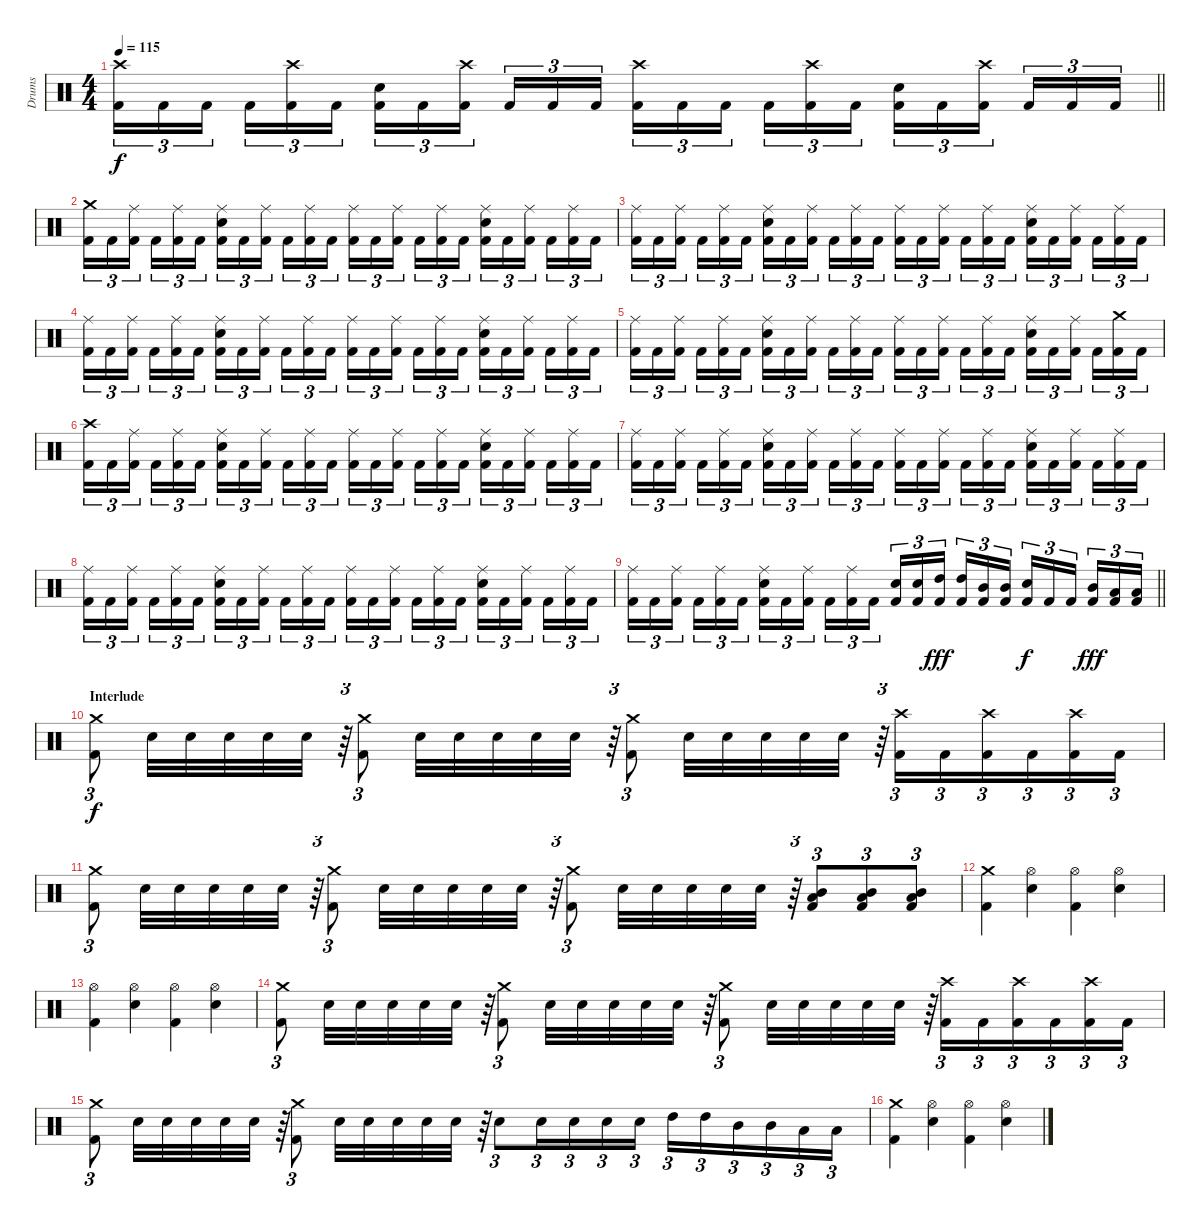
\track ("Drums" "Drums") {instrument percussion}
\staff {score}
\articulation defaults
\ts (4 4)
\tempo 115
\clef neutral
\barLineRight lightlight
\ks c
("Kick (hit) 2" "Crash high (hit)").16{tu (3 2) dy f} "Kick (hit) 2".16{tu (3 2)} "Kick (hit) 2".16{tu (3 2)} "Kick (hit) 2".16{tu (3 2)} ("Kick (hit) 2" "Crash high (hit)").16{tu (3 2)} "Kick (hit) 2".16{tu (3 2)} ("Kick (hit) 2" "Electric Snare (hit)").16{tu (3 2)} "Kick (hit) 2".16{tu (3 2)} ("Kick (hit) 2" "Crash high (hit)").16{tu (3 2)} "Kick (hit) 2".16{tu (3 2)} "Kick (hit) 2".16{tu (3 2)} "Kick (hit) 2".16{tu (3 2)} ("Kick (hit) 2" "Crash high (hit)").16{tu (3 2)} "Kick (hit) 2".16{tu (3 2)} "Kick (hit) 2".16{tu (3 2)} "Kick (hit) 2".16{tu (3 2)} ("Kick (hit) 2" "Crash high (hit)").16{tu (3 2)} "Kick (hit) 2".16{tu (3 2)} ("Kick (hit) 2" "Electric Snare (hit)").16{tu (3 2)} "Kick (hit) 2".16{tu (3 2)} ("Kick (hit) 2" "Crash high (hit)").16{tu (3 2)} "Kick (hit) 2".16{tu (3 2)} "Kick (hit) 2".16{tu (3 2)} "Kick (hit) 2".16{tu (3 2)} |
("Kick (hit) 2" "Crash medium (hit)").16{tu (3 2)} "Kick (hit) 2".16{tu (3 2)} ("Kick (hit) 2" "Ride (middle)").16{tu (3 2)} "Kick (hit) 2".16{tu (3 2)} ("Kick (hit) 2" "Ride (middle)").16{tu (3 2)} "Kick (hit) 2".16{tu (3 2)} ("Kick (hit) 2" "Electric Snare (hit)" "Ride (middle)").16{tu (3 2)} "Kick (hit) 2".16{tu (3 2)} ("Kick (hit) 2" "Ride (middle)").16{tu (3 2)} "Kick (hit) 2".16{tu (3 2)} ("Kick (hit) 2" "Ride (middle)").16{tu (3 2)} "Kick (hit) 2".16{tu (3 2)} ("Kick (hit) 2" "Ride (middle)").16{tu (3 2)} "Kick (hit) 2".16{tu (3 2)} ("Kick (hit) 2" "Ride (middle)").16{tu (3 2)} "Kick (hit) 2".16{tu (3 2)} ("Kick (hit) 2" "Ride (middle)").16{tu (3 2)} "Kick (hit) 2".16{tu (3 2)} ("Kick (hit) 2" "Electric Snare (hit)" "Ride (middle)").16{tu (3 2)} "Kick (hit) 2".16{tu (3 2)} ("Kick (hit) 2" "Ride (middle)").16{tu (3 2)} "Kick (hit) 2".16{tu (3 2)} ("Kick (hit) 2" "Ride (middle)").16{tu (3 2)} "Kick (hit) 2".16{tu (3 2)} |
("Kick (hit) 2" "Ride (middle)").16{tu (3 2)} "Kick (hit) 2".16{tu (3 2)} ("Kick (hit) 2" "Ride (middle)").16{tu (3 2)} "Kick (hit) 2".16{tu (3 2)} ("Kick (hit) 2" "Ride (middle)").16{tu (3 2)} "Kick (hit) 2".16{tu (3 2)} ("Kick (hit) 2" "Electric Snare (hit)" "Ride (middle)").16{tu (3 2)} "Kick (hit) 2".16{tu (3 2)} ("Kick (hit) 2" "Ride (middle)").16{tu (3 2)} "Kick (hit) 2".16{tu (3 2)} ("Kick (hit) 2" "Ride (middle)").16{tu (3 2)} "Kick (hit) 2".16{tu (3 2)} ("Kick (hit) 2" "Ride (middle)").16{tu (3 2)} "Kick (hit) 2".16{tu (3 2)} ("Kick (hit) 2" "Ride (middle)").16{tu (3 2)} "Kick (hit) 2".16{tu (3 2)} ("Kick (hit) 2" "Ride (middle)").16{tu (3 2)} "Kick (hit) 2".16{tu (3 2)} ("Kick (hit) 2" "Electric Snare (hit)" "Ride (middle)").16{tu (3 2)} "Kick (hit) 2".16{tu (3 2)} ("Kick (hit) 2" "Ride (middle)").16{tu (3 2)} "Kick (hit) 2".16{tu (3 2)} ("Kick (hit) 2" "Ride (middle)").16{tu (3 2)} "Kick (hit) 2".16{tu (3 2)} |
("Kick (hit) 2" "Ride (middle)").16{tu (3 2)} "Kick (hit) 2".16{tu (3 2)} ("Kick (hit) 2" "Ride (middle)").16{tu (3 2)} "Kick (hit) 2".16{tu (3 2)} ("Kick (hit) 2" "Ride (middle)").16{tu (3 2)} "Kick (hit) 2".16{tu (3 2)} ("Kick (hit) 2" "Electric Snare (hit)" "Ride (middle)").16{tu (3 2)} "Kick (hit) 2".16{tu (3 2)} ("Kick (hit) 2" "Ride (middle)").16{tu (3 2)} "Kick (hit) 2".16{tu (3 2)} ("Kick (hit) 2" "Ride (middle)").16{tu (3 2)} "Kick (hit) 2".16{tu (3 2)} ("Kick (hit) 2" "Ride (middle)").16{tu (3 2)} "Kick (hit) 2".16{tu (3 2)} ("Kick (hit) 2" "Ride (middle)").16{tu (3 2)} "Kick (hit) 2".16{tu (3 2)} ("Kick (hit) 2" "Ride (middle)").16{tu (3 2)} "Kick (hit) 2".16{tu (3 2)} ("Kick (hit) 2" "Electric Snare (hit)" "Ride (middle)").16{tu (3 2)} "Kick (hit) 2".16{tu (3 2)} ("Kick (hit) 2" "Ride (middle)").16{tu (3 2)} "Kick (hit) 2".16{tu (3 2)} ("Kick (hit) 2" "Ride (middle)").16{tu (3 2)} "Kick (hit) 2".16{tu (3 2)} |
("Kick (hit) 2" "Ride (middle)").16{tu (3 2)} "Kick (hit) 2".16{tu (3 2)} ("Kick (hit) 2" "Ride (middle)").16{tu (3 2)} "Kick (hit) 2".16{tu (3 2)} ("Kick (hit) 2" "Ride (middle)").16{tu (3 2)} "Kick (hit) 2".16{tu (3 2)} ("Kick (hit) 2" "Electric Snare (hit)" "Ride (middle)").16{tu (3 2)} "Kick (hit) 2".16{tu (3 2)} ("Kick (hit) 2" "Ride (middle)").16{tu (3 2)} "Kick (hit) 2".16{tu (3 2)} ("Kick (hit) 2" "Ride (middle)").16{tu (3 2)} "Kick (hit) 2".16{tu (3 2)} ("Kick (hit) 2" "Ride (middle)").16{tu (3 2)} "Kick (hit) 2".16{tu (3 2)} ("Kick (hit) 2" "Ride (middle)").16{tu (3 2)} "Kick (hit) 2".16{tu (3 2)} ("Kick (hit) 2" "Ride (middle)").16{tu (3 2)} "Kick (hit) 2".16{tu (3 2)} ("Kick (hit) 2" "Electric Snare (hit)" "Ride (middle)").16{tu (3 2)} "Kick (hit) 2".16{tu (3 2)} ("Kick (hit) 2" "Ride (middle)").16{tu (3 2)} "Kick (hit) 2".16{tu (3 2)} ("Kick (hit) 2" "Crash medium (hit)").16{tu (3 2)} "Kick (hit) 2".16{tu (3 2)} |
("Kick (hit) 2" "Crash high (hit)").16{tu (3 2)} "Kick (hit) 2".16{tu (3 2)} ("Kick (hit) 2" "Ride (middle)").16{tu (3 2)} "Kick (hit) 2".16{tu (3 2)} ("Kick (hit) 2" "Ride (middle)").16{tu (3 2)} "Kick (hit) 2".16{tu (3 2)} ("Kick (hit) 2" "Electric Snare (hit)" "Ride (middle)").16{tu (3 2)} "Kick (hit) 2".16{tu (3 2)} ("Kick (hit) 2" "Ride (middle)").16{tu (3 2)} "Kick (hit) 2".16{tu (3 2)} ("Kick (hit) 2" "Ride (middle)").16{tu (3 2)} "Kick (hit) 2".16{tu (3 2)} ("Kick (hit) 2" "Ride (middle)").16{tu (3 2)} "Kick (hit) 2".16{tu (3 2)} ("Kick (hit) 2" "Ride (middle)").16{tu (3 2)} "Kick (hit) 2".16{tu (3 2)} ("Kick (hit) 2" "Ride (middle)").16{tu (3 2)} "Kick (hit) 2".16{tu (3 2)} ("Kick (hit) 2" "Electric Snare (hit)" "Ride (middle)").16{tu (3 2)} "Kick (hit) 2".16{tu (3 2)} ("Kick (hit) 2" "Ride (middle)").16{tu (3 2)} "Kick (hit) 2".16{tu (3 2)} ("Kick (hit) 2" "Ride (middle)").16{tu (3 2)} "Kick (hit) 2".16{tu (3 2)} |
("Kick (hit) 2" "Ride (middle)").16{tu (3 2)} "Kick (hit) 2".16{tu (3 2)} ("Kick (hit) 2" "Ride (middle)").16{tu (3 2)} "Kick (hit) 2".16{tu (3 2)} ("Kick (hit) 2" "Ride (middle)").16{tu (3 2)} "Kick (hit) 2".16{tu (3 2)} ("Kick (hit) 2" "Electric Snare (hit)" "Ride (middle)").16{tu (3 2)} "Kick (hit) 2".16{tu (3 2)} ("Kick (hit) 2" "Ride (middle)").16{tu (3 2)} "Kick (hit) 2".16{tu (3 2)} ("Kick (hit) 2" "Ride (middle)").16{tu (3 2)} "Kick (hit) 2".16{tu (3 2)} ("Kick (hit) 2" "Ride (middle)").16{tu (3 2)} "Kick (hit) 2".16{tu (3 2)} ("Kick (hit) 2" "Ride (middle)").16{tu (3 2)} "Kick (hit) 2".16{tu (3 2)} ("Kick (hit) 2" "Ride (middle)").16{tu (3 2)} "Kick (hit) 2".16{tu (3 2)} ("Kick (hit) 2" "Electric Snare (hit)" "Ride (middle)").16{tu (3 2)} "Kick (hit) 2".16{tu (3 2)} ("Kick (hit) 2" "Ride (middle)").16{tu (3 2)} "Kick (hit) 2".16{tu (3 2)} ("Kick (hit) 2" "Ride (middle)").16{tu (3 2)} "Kick (hit) 2".16{tu (3 2)} |
("Kick (hit) 2" "Ride (middle)").16{tu (3 2)} "Kick (hit) 2".16{tu (3 2)} ("Kick (hit) 2" "Ride (middle)").16{tu (3 2)} "Kick (hit) 2".16{tu (3 2)} ("Kick (hit) 2" "Ride (middle)").16{tu (3 2)} "Kick (hit) 2".16{tu (3 2)} ("Kick (hit) 2" "Electric Snare (hit)" "Ride (middle)").16{tu (3 2)} "Kick (hit) 2".16{tu (3 2)} ("Kick (hit) 2" "Ride (middle)").16{tu (3 2)} "Kick (hit) 2".16{tu (3 2)} ("Kick (hit) 2" "Ride (middle)").16{tu (3 2)} "Kick (hit) 2".16{tu (3 2)} ("Kick (hit) 2" "Ride (middle)").16{tu (3 2)} "Kick (hit) 2".16{tu (3 2)} ("Kick (hit) 2" "Ride (middle)").16{tu (3 2)} "Kick (hit) 2".16{tu (3 2)} ("Kick (hit) 2" "Ride (middle)").16{tu (3 2)} "Kick (hit) 2".16{tu (3 2)} ("Kick (hit) 2" "Electric Snare (hit)" "Ride (middle)").16{tu (3 2)} "Kick (hit) 2".16{tu (3 2)} ("Kick (hit) 2" "Ride (middle)").16{tu (3 2)} "Kick (hit) 2".16{tu (3 2)} ("Kick (hit) 2" "Ride (middle)").16{tu (3 2)} "Kick (hit) 2".16{tu (3 2)} |
\barLineRight lightlight
("Kick (hit) 2" "Ride (middle)").16{tu (3 2)} "Kick (hit) 2".16{tu (3 2)} ("Kick (hit) 2" "Ride (middle)").16{tu (3 2)} "Kick (hit) 2".16{tu (3 2)} ("Kick (hit) 2" "Ride (middle)").16{tu (3 2)} "Kick (hit) 2".16{tu (3 2)} ("Kick (hit) 2" "Electric Snare (hit)" "Ride (middle)").16{tu (3 2)} "Kick (hit) 2".16{tu (3 2)} ("Kick (hit) 2" "Ride (middle)").16{tu (3 2)} "Kick (hit) 2".16{tu (3 2)} ("Kick (hit) 2" "Ride (middle)").16{tu (3 2)} "Kick (hit) 2".16{tu (3 2)} ("Kick (hit) 2" "Electric Snare (hit)").16{tu (3 2)} ("Kick (hit) 2" "Electric Snare (hit)").16{tu (3 2)} ("Kick (hit) 2" "High Tom (hit)").16{tu (3 2) dy fff} ("Kick (hit) 2" "High Tom (hit)").16{tu (3 2)} ("Kick (hit) 2" "Mid Tom (hit)").16{tu (3 2)} ("Kick (hit) 2" "Mid Tom (hit)").16{tu (3 2)} ("Kick (hit) 2" "Electric Snare (hit)").16{tu (3 2) dy f} "Kick (hit) 2".16{tu (3 2)} "Kick (hit) 2".16{tu (3 2)} ("Kick (hit) 2" "Mid Tom (hit)").16{tu (3 2) dy fff} ("Kick (hit) 2" "Low Tom (hit)").16{tu (3 2)} ("Kick (hit) 2" "Low Tom (hit)").16{tu (3 2)} |
\section ("" "Interlude")
("Kick (hit) 2" "Crash medium (hit)").8{tu (3 2) dy f} "Electric Snare (hit)".32 "Electric Snare (hit)".32 "Electric Snare (hit)".32 "Electric Snare (hit)".32 "Electric Snare (hit)".32 r.64{tu (3 2)} ("Kick (hit) 2" "Crash medium (hit)").8{tu (3 2)} "Electric Snare (hit)".32 "Electric Snare (hit)".32 "Electric Snare (hit)".32 "Electric Snare (hit)".32 "Electric Snare (hit)".32 r.64{tu (3 2)} ("Kick (hit) 2" "Crash medium (hit)").8{tu (3 2)} "Electric Snare (hit)".32 "Electric Snare (hit)".32 "Electric Snare (hit)".32 "Electric Snare (hit)".32 "Electric Snare (hit)".32 r.64{tu (3 2)} ("Kick (hit) 2" "Crash high (hit)").16{tu (3 2)} "Kick (hit) 2".16{tu (3 2)} ("Kick (hit) 2" "Crash high (hit)").16{tu (3 2)} "Kick (hit) 2".16{tu (3 2)} ("Kick (hit) 2" "Crash high (hit)").16{tu (3 2)} "Kick (hit) 2".16{tu (3 2)} |
("Kick (hit) 2" "Crash medium (hit)").8{tu (3 2)} "Electric Snare (hit)".32 "Electric Snare (hit)".32 "Electric Snare (hit)".32 "Electric Snare (hit)".32 "Electric Snare (hit)".32 r.64{tu (3 2)} ("Kick (hit) 2" "Crash medium (hit)").8{tu (3 2)} "Electric Snare (hit)".32 "Electric Snare (hit)".32 "Electric Snare (hit)".32 "Electric Snare (hit)".32 "Electric Snare (hit)".32 r.64{tu (3 2)} ("Kick (hit) 2" "Crash medium (hit)").8{tu (3 2)} "Electric Snare (hit)".32 "Electric Snare (hit)".32 "Electric Snare (hit)".32 "Electric Snare (hit)".32 "Electric Snare (hit)".32 r.64{tu (3 2)} ("Kick (hit) 2" "Mid Tom (hit)" "Low Tom (hit)").8{tu (3 2)} ("Kick (hit) 2" "Mid Tom (hit)" "Low Tom (hit)").8{tu (3 2)} ("Kick (hit) 2" "Mid Tom (hit)" "Low Tom (hit)").8{tu (3 2)} |
("Kick (hit) 2" "Crash medium (hit)").4 ("Electric Snare (hit)" "Hi-Hat (open)").4 ("Kick (hit) 2" "Hi-Hat (open)").4 ("Electric Snare (hit)" "Hi-Hat (open)").4 |
("Kick (hit) 2" "Hi-Hat (open)").4 ("Electric Snare (hit)" "Hi-Hat (open)").4 ("Kick (hit) 2" "Hi-Hat (open)").4 ("Electric Snare (hit)" "Hi-Hat (open)").4 |
("Kick (hit) 2" "Crash medium (hit)").8{tu (3 2)} "Electric Snare (hit)".32 "Electric Snare (hit)".32 "Electric Snare (hit)".32 "Electric Snare (hit)".32 "Electric Snare (hit)".32 r.64{tu (3 2)} ("Kick (hit) 2" "Crash medium (hit)").8{tu (3 2)} "Electric Snare (hit)".32 "Electric Snare (hit)".32 "Electric Snare (hit)".32 "Electric Snare (hit)".32 "Electric Snare (hit)".32 r.64{tu (3 2)} ("Kick (hit) 2" "Crash medium (hit)").8{tu (3 2)} "Electric Snare (hit)".32 "Electric Snare (hit)".32 "Electric Snare (hit)".32 "Electric Snare (hit)".32 "Electric Snare (hit)".32 r.64{tu (3 2)} ("Kick (hit) 2" "Crash high (hit)").16{tu (3 2)} "Kick (hit) 2".16{tu (3 2)} ("Kick (hit) 2" "Crash high (hit)").16{tu (3 2)} "Kick (hit) 2".16{tu (3 2)} ("Kick (hit) 2" "Crash high (hit)").16{tu (3 2)} "Kick (hit) 2".16{tu (3 2)} |
("Kick (hit) 2" "Crash medium (hit)").8{tu (3 2)} "Electric Snare (hit)".32 "Electric Snare (hit)".32 "Electric Snare (hit)".32 "Electric Snare (hit)".32 "Electric Snare (hit)".32 r.64{tu (3 2)} ("Kick (hit) 2" "Crash medium (hit)").8{tu (3 2)} "Electric Snare (hit)".32 "Electric Snare (hit)".32 "Electric Snare (hit)".32 "Electric Snare (hit)".32 "Electric Snare (hit)".32 r.64{tu (3 2)} "Electric Snare (hit)".8{tu (3 2)} "Electric Snare (hit)".16{tu (3 2)} "Electric Snare (hit)".16{tu (3 2)} "Electric Snare (hit)".16{tu (3 2)} "Electric Snare (hit)".16{tu (3 2)} "High Tom (hit)".16{tu (3 2)} "High Tom (hit)".16{tu (3 2)} "Mid Tom (hit)".16{tu (3 2)} "Mid Tom (hit)".16{tu (3 2)} "Low Tom (hit)".16{tu (3 2)} "Low Tom (hit)".16{tu (3 2)} |
("Kick (hit) 2" "Crash medium (hit)").4 ("Electric Snare (hit)" "Hi-Hat (open)").4 ("Kick (hit) 2" "Hi-Hat (open)").4 ("Electric Snare (hit)" "Hi-Hat (open)").4
